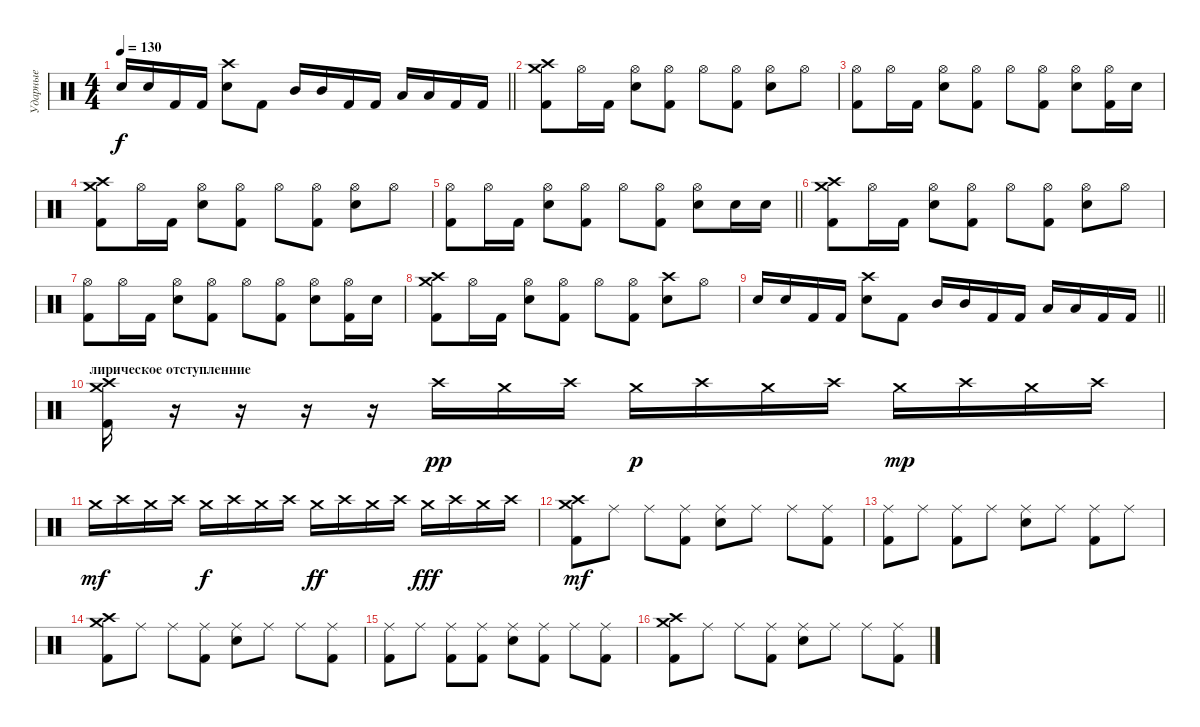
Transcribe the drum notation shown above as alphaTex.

\track ("Ударные" "Ударные") {instrument percussion}
\staff
\articulation defaults
\ts (4 4)
\tempo 130
\clef neutral
\barLineRight lightlight
\ks c "Electric Snare (hit)".16{dy f} "Electric Snare (hit)".16 "Kick (hit) 2".16 "Kick (hit) 2".16
("Crash high (hit)" "Electric Snare (hit)").8 "Kick (hit) 2".8 "Mid Tom (hit)".16 "Mid Tom (hit)".16 "Kick (hit) 2".16 "Kick (hit) 2".16 "Low Tom (hit)".16 "Low Tom (hit)".16 "Kick (hit) 2".16 "Kick (hit) 2".16 |
("Crash high (hit)" "Crash medium (hit)" "Kick (hit) 2").8 "Hi-Hat (open)".16 "Kick (hit) 2".16 ("Hi-Hat (open)" "Electric Snare (hit)").8 ("Hi-Hat (open)" "Kick (hit) 2").8 "Hi-Hat (open)".8 ("Hi-Hat (open)" "Kick (hit) 2").8 ("Hi-Hat (open)" "Electric Snare (hit)").8 "Hi-Hat (open)".8 |
("Hi-Hat (open)" "Kick (hit) 2").8 "Hi-Hat (open)".16 "Kick (hit) 2".16 ("Hi-Hat (open)" "Electric Snare (hit)").8 ("Hi-Hat (open)" "Kick (hit) 2").8 "Hi-Hat (open)".8 ("Hi-Hat (open)" "Kick (hit) 2").8 ("Hi-Hat (open)" "Electric Snare (hit)").8 ("Hi-Hat (open)" "Kick (hit) 2").16 "Electric Snare (hit)".16 |
("Crash high (hit)" "Crash medium (hit)" "Kick (hit) 2").8 "Hi-Hat (open)".16 "Kick (hit) 2".16 ("Hi-Hat (open)" "Electric Snare (hit)").8 ("Hi-Hat (open)" "Kick (hit) 2").8 "Hi-Hat (open)".8 ("Hi-Hat (open)" "Kick (hit) 2").8 ("Hi-Hat (open)" "Electric Snare (hit)").8 "Hi-Hat (open)".8 |
\barLineRight lightlight
("Hi-Hat (open)" "Kick (hit) 2").8 "Hi-Hat (open)".16 "Kick (hit) 2".16 ("Hi-Hat (open)" "Electric Snare (hit)").8 ("Hi-Hat (open)" "Kick (hit) 2").8 "Hi-Hat (open)".8 ("Hi-Hat (open)" "Kick (hit) 2").8 ("Hi-Hat (open)" "Electric Snare (hit)").8 "Electric Snare (hit)".16 "Electric Snare (hit)".16 |
("Crash high (hit)" "Crash medium (hit)" "Kick (hit) 2").8 "Hi-Hat (open)".16 "Kick (hit) 2".16 ("Hi-Hat (open)" "Electric Snare (hit)").8 ("Hi-Hat (open)" "Kick (hit) 2").8 "Hi-Hat (open)".8 ("Hi-Hat (open)" "Kick (hit) 2").8 ("Hi-Hat (open)" "Electric Snare (hit)").8 "Hi-Hat (open)".8 |
("Hi-Hat (open)" "Kick (hit) 2").8 "Hi-Hat (open)".16 "Kick (hit) 2".16 ("Hi-Hat (open)" "Electric Snare (hit)").8 ("Hi-Hat (open)" "Kick (hit) 2").8 "Hi-Hat (open)".8 ("Hi-Hat (open)" "Kick (hit) 2").8 ("Hi-Hat (open)" "Electric Snare (hit)").8 ("Hi-Hat (open)" "Kick (hit) 2").16 "Electric Snare (hit)".16 |
("Crash high (hit)" "Crash medium (hit)" "Kick (hit) 2").8 "Hi-Hat (open)".16 "Kick (hit) 2".16 ("Hi-Hat (open)" "Electric Snare (hit)").8 ("Hi-Hat (open)" "Kick (hit) 2").8 "Hi-Hat (open)".8 ("Hi-Hat (open)" "Kick (hit) 2").8 ("Crash high (hit)" "Electric Snare (hit)").8 "Hi-Hat (open)".8 |
\barLineRight lightlight "Electric Snare (hit)".16 "Electric Snare (hit)".16 "Kick (hit) 2".16 "Kick (hit) 2".16
("Crash high (hit)" "Electric Snare (hit)").8 "Kick (hit) 2".8 "Mid Tom (hit)".16 "Mid Tom (hit)".16 "Kick (hit) 2".16 "Kick (hit) 2".16 "Low Tom (hit)".16 "Low Tom (hit)".16 "Kick (hit) 2".16 "Kick (hit) 2".16 |
\section ("" "лирическое отступленние")
("Crash medium (hit)" "Crash high (hit)" "Kick (hit) 2").16 r.16 r.16 r.16 r.16 "Crash high (hit)".16{dy pp} "Crash medium (hit)".16 "Crash high (hit)".16 "Crash medium (hit)".16{dy p} "Crash high (hit)".16 "Crash medium (hit)".16 "Crash high (hit)".16 "Crash medium (hit)".16{dy mp} "Crash high (hit)".16 "Crash medium (hit)".16 "Crash high (hit)".16 |
"Crash medium (hit)".16{dy mf} "Crash high (hit)".16 "Crash medium (hit)".16 "Crash high (hit)".16 "Crash medium (hit)".16{dy f} "Crash high (hit)".16 "Crash medium (hit)".16 "Crash high (hit)".16 "Crash medium (hit)".16{dy ff} "Crash high (hit)".16 "Crash medium (hit)".16 "Crash high (hit)".16 "Crash medium (hit)".16{dy fff} "Crash high (hit)".16 "Crash medium (hit)".16 "Crash high (hit)".16 |
("Crash medium (hit)" "Crash high (hit)" "Kick (hit) 2").8{dy mf} "Ride (middle)".8 "Ride (middle)".8 ("Ride (middle)" "Kick (hit) 2").8 ("Ride (middle)" "Electric Snare (hit)").8 "Ride (middle)".8 "Ride (middle)".8 ("Ride (middle)" "Kick (hit) 2").8 |
("Ride (middle)" "Kick (hit) 2").8 "Ride (middle)".8 ("Ride (middle)" "Kick (hit) 2").8 "Ride (middle)".8 ("Ride (middle)" "Electric Snare (hit)").8 "Ride (middle)".8 ("Ride (middle)" "Kick (hit) 2").8 "Ride (middle)".8 |
("Crash medium (hit)" "Crash high (hit)" "Kick (hit) 2").8 "Ride (middle)".8 "Ride (middle)".8 ("Ride (middle)" "Kick (hit) 2").8 ("Ride (middle)" "Electric Snare (hit)").8 "Ride (middle)".8 "Ride (middle)".8 ("Ride (middle)" "Kick (hit) 2").8 |
("Ride (middle)" "Kick (hit) 2").8 "Ride (middle)".8 ("Ride (middle)" "Kick (hit) 2").8 ("Ride (middle)" "Kick (hit) 2").8 ("Ride (middle)" "Electric Snare (hit)").8 ("Ride (middle)" "Kick (hit) 2").8 "Ride (middle)".8 ("Ride (middle)" "Kick (hit) 2").8 |
("Crash medium (hit)" "Crash high (hit)" "Kick (hit) 2").8 "Ride (middle)".8 "Ride (middle)".8 ("Ride (middle)" "Kick (hit) 2").8 ("Ride (middle)" "Electric Snare (hit)").8 "Ride (middle)".8 "Ride (middle)".8 ("Ride (middle)" "Kick (hit) 2").8
